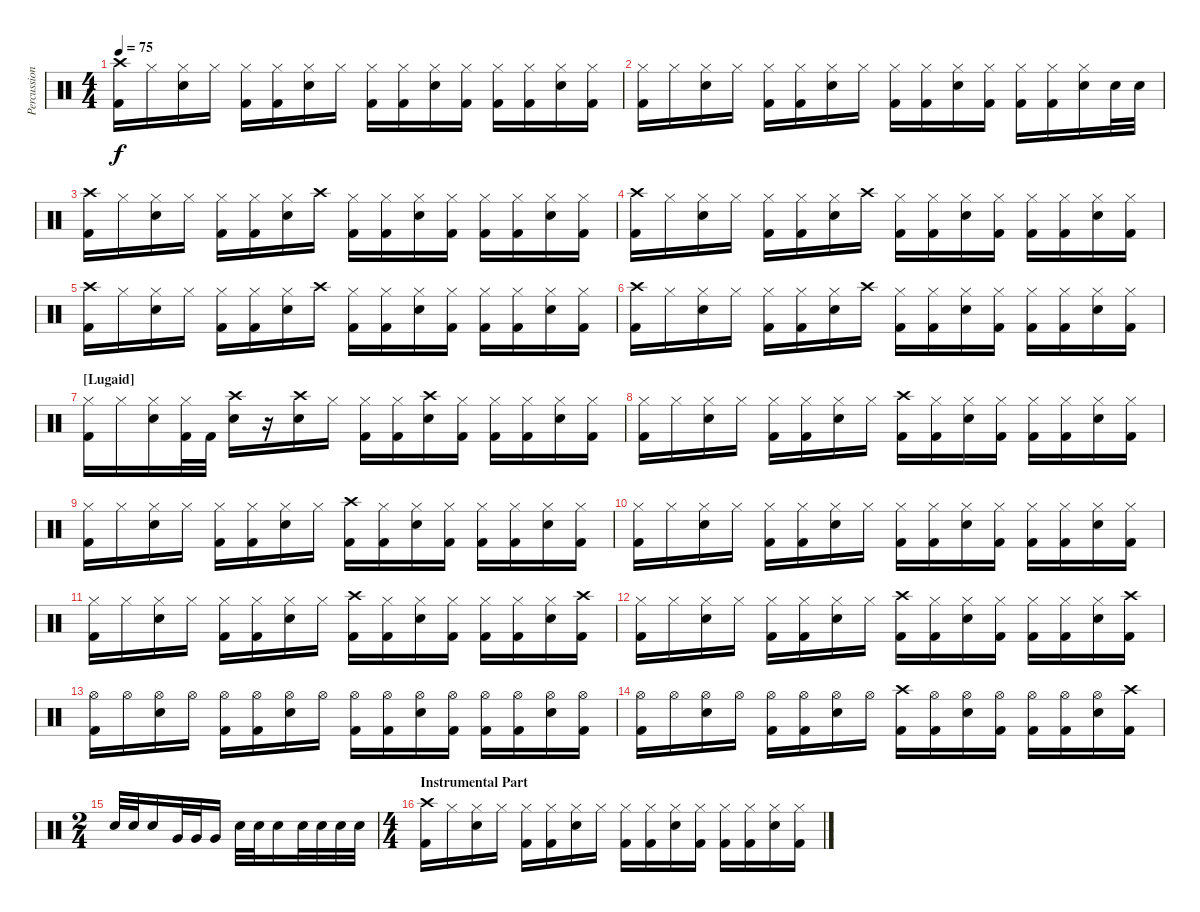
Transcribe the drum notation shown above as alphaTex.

\track ("Percussions" "Percussion") {instrument percussion}
\staff {score}
\articulation defaults
\ts (4 4)
\tempo 75
\clef neutral
\ks c
("Crash high (hit)" "Kick (hit) 2").16{dy f} "Hi-Hat (closed)".16 ("Hi-Hat (closed)" "Electric Snare (hit)").16 "Hi-Hat (closed)".16 ("Hi-Hat (closed)" "Kick (hit) 2").16 ("Hi-Hat (closed)" "Kick (hit) 2").16 ("Hi-Hat (closed)" "Electric Snare (hit)").16 "Hi-Hat (closed)".16 ("Hi-Hat (closed)" "Kick (hit) 2").16 ("Hi-Hat (closed)" "Kick (hit) 2").16 ("Hi-Hat (closed)" "Electric Snare (hit)").16 ("Hi-Hat (closed)" "Kick (hit) 2").16 ("Hi-Hat (closed)" "Kick (hit) 2").16 ("Hi-Hat (closed)" "Kick (hit) 2").16 ("Hi-Hat (closed)" "Electric Snare (hit)").16 ("Hi-Hat (closed)" "Kick (hit) 2").16 |
("Hi-Hat (closed)" "Kick (hit) 2").16 "Hi-Hat (closed)".16 ("Hi-Hat (closed)" "Electric Snare (hit)").16 "Hi-Hat (closed)".16 ("Hi-Hat (closed)" "Kick (hit) 2").16 ("Hi-Hat (closed)" "Kick (hit) 2").16 ("Hi-Hat (closed)" "Electric Snare (hit)").16 "Hi-Hat (closed)".16 ("Hi-Hat (closed)" "Kick (hit) 2").16 ("Hi-Hat (closed)" "Kick (hit) 2").16 ("Hi-Hat (closed)" "Electric Snare (hit)").16 ("Hi-Hat (closed)" "Kick (hit) 2").16 ("Hi-Hat (closed)" "Kick (hit) 2").16 ("Hi-Hat (closed)" "Kick (hit) 2").16 ("Hi-Hat (closed)" "Electric Snare (hit)").16 "Electric Snare (hit)".32 "Electric Snare (hit)".32 |
("Crash high (hit)" "Kick (hit) 2").16 "Hi-Hat (closed)".16 ("Hi-Hat (closed)" "Electric Snare (hit)").16 "Hi-Hat (closed)".16 ("Hi-Hat (closed)" "Kick (hit) 2").16 ("Hi-Hat (closed)" "Kick (hit) 2").16 ("Hi-Hat (closed)" "Electric Snare (hit)").16 "Crash high (hit)".16 ("Hi-Hat (closed)" "Kick (hit) 2").16 ("Hi-Hat (closed)" "Kick (hit) 2").16 ("Hi-Hat (closed)" "Electric Snare (hit)").16 ("Hi-Hat (closed)" "Kick (hit) 2").16 ("Hi-Hat (closed)" "Kick (hit) 2").16 ("Hi-Hat (closed)" "Kick (hit) 2").16 ("Hi-Hat (closed)" "Electric Snare (hit)").16 ("Hi-Hat (closed)" "Kick (hit) 2").16 |
("Crash high (hit)" "Kick (hit) 2").16 "Hi-Hat (closed)".16 ("Hi-Hat (closed)" "Electric Snare (hit)").16 "Hi-Hat (closed)".16 ("Hi-Hat (closed)" "Kick (hit) 2").16 ("Hi-Hat (closed)" "Kick (hit) 2").16 ("Hi-Hat (closed)" "Electric Snare (hit)").16 "Crash high (hit)".16 ("Hi-Hat (closed)" "Kick (hit) 2").16 ("Hi-Hat (closed)" "Kick (hit) 2").16 ("Hi-Hat (closed)" "Electric Snare (hit)").16 ("Hi-Hat (closed)" "Kick (hit) 2").16 ("Hi-Hat (closed)" "Kick (hit) 2").16 ("Hi-Hat (closed)" "Kick (hit) 2").16 ("Hi-Hat (closed)" "Electric Snare (hit)").16 ("Hi-Hat (closed)" "Kick (hit) 2").16 |
("Crash high (hit)" "Kick (hit) 2").16 "Hi-Hat (closed)".16 ("Hi-Hat (closed)" "Electric Snare (hit)").16 "Hi-Hat (closed)".16 ("Hi-Hat (closed)" "Kick (hit) 2").16 ("Hi-Hat (closed)" "Kick (hit) 2").16 ("Hi-Hat (closed)" "Electric Snare (hit)").16 "Crash high (hit)".16 ("Hi-Hat (closed)" "Kick (hit) 2").16 ("Hi-Hat (closed)" "Kick (hit) 2").16 ("Hi-Hat (closed)" "Electric Snare (hit)").16 ("Hi-Hat (closed)" "Kick (hit) 2").16 ("Hi-Hat (closed)" "Kick (hit) 2").16 ("Hi-Hat (closed)" "Kick (hit) 2").16 ("Hi-Hat (closed)" "Electric Snare (hit)").16 ("Hi-Hat (closed)" "Kick (hit) 2").16 |
("Crash high (hit)" "Kick (hit) 2").16 "Hi-Hat (closed)".16 ("Hi-Hat (closed)" "Electric Snare (hit)").16 "Hi-Hat (closed)".16 ("Hi-Hat (closed)" "Kick (hit) 2").16 ("Hi-Hat (closed)" "Kick (hit) 2").16 ("Hi-Hat (closed)" "Electric Snare (hit)").16 "Crash high (hit)".16 ("Hi-Hat (closed)" "Kick (hit) 2").16 ("Hi-Hat (closed)" "Kick (hit) 2").16 ("Hi-Hat (closed)" "Electric Snare (hit)").16 ("Hi-Hat (closed)" "Kick (hit) 2").16 ("Hi-Hat (closed)" "Kick (hit) 2").16 ("Hi-Hat (closed)" "Kick (hit) 2").16 ("Hi-Hat (closed)" "Electric Snare (hit)").16 ("Hi-Hat (closed)" "Kick (hit) 2").16 |
\section ("" "[Lugaid]")
("Hi-Hat (closed)" "Kick (hit) 2").16 "Hi-Hat (closed)".16 ("Hi-Hat (closed)" "Electric Snare (hit)").16 ("Hi-Hat (closed)" "Kick (hit) 2").32 "Kick (hit) 2".32 ("Crash high (hit)" "Electric Snare (hit)").16 r.16 ("Crash high (hit)" "Electric Snare (hit)").16 "Hi-Hat (closed)".16 ("Hi-Hat (closed)" "Kick (hit) 2").16 ("Hi-Hat (closed)" "Kick (hit) 2").16 ("Crash high (hit)" "Electric Snare (hit)").16 ("Hi-Hat (closed)" "Kick (hit) 2").16 ("Hi-Hat (closed)" "Kick (hit) 2").16 ("Hi-Hat (closed)" "Kick (hit) 2").16 ("Hi-Hat (closed)" "Electric Snare (hit)").16 ("Hi-Hat (closed)" "Kick (hit) 2").16 |
("Hi-Hat (closed)" "Kick (hit) 2").16 "Hi-Hat (closed)".16 ("Hi-Hat (closed)" "Electric Snare (hit)").16 "Hi-Hat (closed)".16 ("Hi-Hat (closed)" "Kick (hit) 2").16 ("Hi-Hat (closed)" "Kick (hit) 2").16 ("Hi-Hat (closed)" "Electric Snare (hit)").16 "Hi-Hat (closed)".16 ("Crash high (hit)" "Kick (hit) 2").16 ("Hi-Hat (closed)" "Kick (hit) 2").16 ("Hi-Hat (closed)" "Electric Snare (hit)").16 ("Hi-Hat (closed)" "Kick (hit) 2").16 ("Hi-Hat (closed)" "Kick (hit) 2").16 ("Hi-Hat (closed)" "Kick (hit) 2").16 ("Hi-Hat (closed)" "Electric Snare (hit)").16 ("Hi-Hat (closed)" "Kick (hit) 2").16 |
("Hi-Hat (closed)" "Kick (hit) 2").16 "Hi-Hat (closed)".16 ("Hi-Hat (closed)" "Electric Snare (hit)").16 "Hi-Hat (closed)".16 ("Hi-Hat (closed)" "Kick (hit) 2").16 ("Hi-Hat (closed)" "Kick (hit) 2").16 ("Hi-Hat (closed)" "Electric Snare (hit)").16 "Hi-Hat (closed)".16 ("Crash high (hit)" "Kick (hit) 2").16 ("Hi-Hat (closed)" "Kick (hit) 2").16 ("Hi-Hat (closed)" "Electric Snare (hit)").16 ("Hi-Hat (closed)" "Kick (hit) 2").16 ("Hi-Hat (closed)" "Kick (hit) 2").16 ("Hi-Hat (closed)" "Kick (hit) 2").16 ("Hi-Hat (closed)" "Electric Snare (hit)").16 ("Hi-Hat (closed)" "Kick (hit) 2").16 |
("Hi-Hat (closed)" "Kick (hit) 2").16 "Hi-Hat (closed)".16 ("Hi-Hat (closed)" "Electric Snare (hit)").16 "Hi-Hat (closed)".16 ("Hi-Hat (closed)" "Kick (hit) 2").16 ("Hi-Hat (closed)" "Kick (hit) 2").16 ("Hi-Hat (closed)" "Electric Snare (hit)").16 "Hi-Hat (closed)".16 ("Hi-Hat (closed)" "Kick (hit) 2").16 ("Hi-Hat (closed)" "Kick (hit) 2").16 ("Hi-Hat (closed)" "Electric Snare (hit)").16 ("Hi-Hat (closed)" "Kick (hit) 2").16 ("Hi-Hat (closed)" "Kick (hit) 2").16 ("Hi-Hat (closed)" "Kick (hit) 2").16 ("Hi-Hat (closed)" "Electric Snare (hit)").16 ("Hi-Hat (closed)" "Kick (hit) 2").16 |
("Hi-Hat (closed)" "Kick (hit) 2").16 "Hi-Hat (closed)".16 ("Hi-Hat (closed)" "Electric Snare (hit)").16 "Hi-Hat (closed)".16 ("Hi-Hat (closed)" "Kick (hit) 2").16 ("Hi-Hat (closed)" "Kick (hit) 2").16 ("Hi-Hat (closed)" "Electric Snare (hit)").16 "Hi-Hat (closed)".16 ("Crash high (hit)" "Kick (hit) 2").16 ("Hi-Hat (closed)" "Kick (hit) 2").16 ("Hi-Hat (closed)" "Electric Snare (hit)").16 ("Hi-Hat (closed)" "Kick (hit) 2").16 ("Hi-Hat (closed)" "Kick (hit) 2").16 ("Hi-Hat (closed)" "Kick (hit) 2").16 ("Hi-Hat (closed)" "Electric Snare (hit)").16 ("Crash high (hit)" "Kick (hit) 2").16 |
("Hi-Hat (closed)" "Kick (hit) 2").16 "Hi-Hat (closed)".16 ("Hi-Hat (closed)" "Electric Snare (hit)").16 "Hi-Hat (closed)".16 ("Hi-Hat (closed)" "Kick (hit) 2").16 ("Hi-Hat (closed)" "Kick (hit) 2").16 ("Hi-Hat (closed)" "Electric Snare (hit)").16 "Hi-Hat (closed)".16 ("Crash high (hit)" "Kick (hit) 2").16 ("Hi-Hat (closed)" "Kick (hit) 2").16 ("Hi-Hat (closed)" "Electric Snare (hit)").16 ("Hi-Hat (closed)" "Kick (hit) 2").16 ("Hi-Hat (closed)" "Kick (hit) 2").16 ("Hi-Hat (closed)" "Kick (hit) 2").16 ("Hi-Hat (closed)" "Electric Snare (hit)").16 ("Crash high (hit)" "Kick (hit) 2").16 |
("Hi-Hat (open)" "Kick (hit) 2").16 "Hi-Hat (open)".16 ("Hi-Hat (open)" "Electric Snare (hit)").16 "Hi-Hat (open)".16 ("Hi-Hat (open)" "Kick (hit) 2").16 ("Hi-Hat (open)" "Kick (hit) 2").16 ("Hi-Hat (open)" "Electric Snare (hit)").16 "Hi-Hat (open)".16 ("Hi-Hat (open)" "Kick (hit) 2").16 ("Hi-Hat (open)" "Kick (hit) 2").16 ("Hi-Hat (open)" "Electric Snare (hit)").16 ("Hi-Hat (open)" "Kick (hit) 2").16 ("Hi-Hat (open)" "Kick (hit) 2").16 ("Hi-Hat (open)" "Kick (hit) 2").16 ("Hi-Hat (open)" "Electric Snare (hit)").16 ("Hi-Hat (open)" "Kick (hit) 2").16 |
("Hi-Hat (open)" "Kick (hit) 2").16 "Hi-Hat (open)".16 ("Hi-Hat (open)" "Electric Snare (hit)").16 "Hi-Hat (open)".16 ("Hi-Hat (open)" "Kick (hit) 2").16 ("Hi-Hat (open)" "Kick (hit) 2").16 ("Hi-Hat (open)" "Electric Snare (hit)").16 "Hi-Hat (open)".16 ("Crash high (hit)" "Kick (hit) 2").16 ("Hi-Hat (open)" "Kick (hit) 2").16 ("Hi-Hat (open)" "Electric Snare (hit)").16 ("Hi-Hat (open)" "Kick (hit) 2").16 ("Hi-Hat (open)" "Kick (hit) 2").16 ("Hi-Hat (open)" "Kick (hit) 2").16 ("Hi-Hat (open)" "Electric Snare (hit)").16 ("Crash high (hit)" "Kick (hit) 2").16 |
\ts (2 4)
"Electric Snare (hit)".32 "Electric Snare (hit)".32 "Electric Snare (hit)".16 "Very Low Tom (hit)".32 "Very Low Tom (hit)".32 "Very Low Tom (hit)".16 "Electric Snare (hit)".32 "Electric Snare (hit)".32 "Electric Snare (hit)".16 "Electric Snare (hit)".32 "Electric Snare (hit)".32 "Electric Snare (hit)".32 "Electric Snare (hit)".32 |
\ts (4 4)
\section ("" "Instrumental Part")
("Crash high (hit)" "Kick (hit) 2").16 "Hi-Hat (closed)".16 ("Hi-Hat (closed)" "Electric Snare (hit)").16 "Hi-Hat (closed)".16 ("Hi-Hat (closed)" "Kick (hit) 2").16 ("Hi-Hat (closed)" "Kick (hit) 2").16 ("Hi-Hat (closed)" "Electric Snare (hit)").16 "Hi-Hat (closed)".16 ("Hi-Hat (closed)" "Kick (hit) 2").16 ("Hi-Hat (closed)" "Kick (hit) 2").16 ("Hi-Hat (closed)" "Electric Snare (hit)").16 ("Hi-Hat (closed)" "Kick (hit) 2").16 ("Hi-Hat (closed)" "Kick (hit) 2").16 ("Hi-Hat (closed)" "Kick (hit) 2").16 ("Hi-Hat (closed)" "Electric Snare (hit)").16 ("Hi-Hat (closed)" "Kick (hit) 2").16
